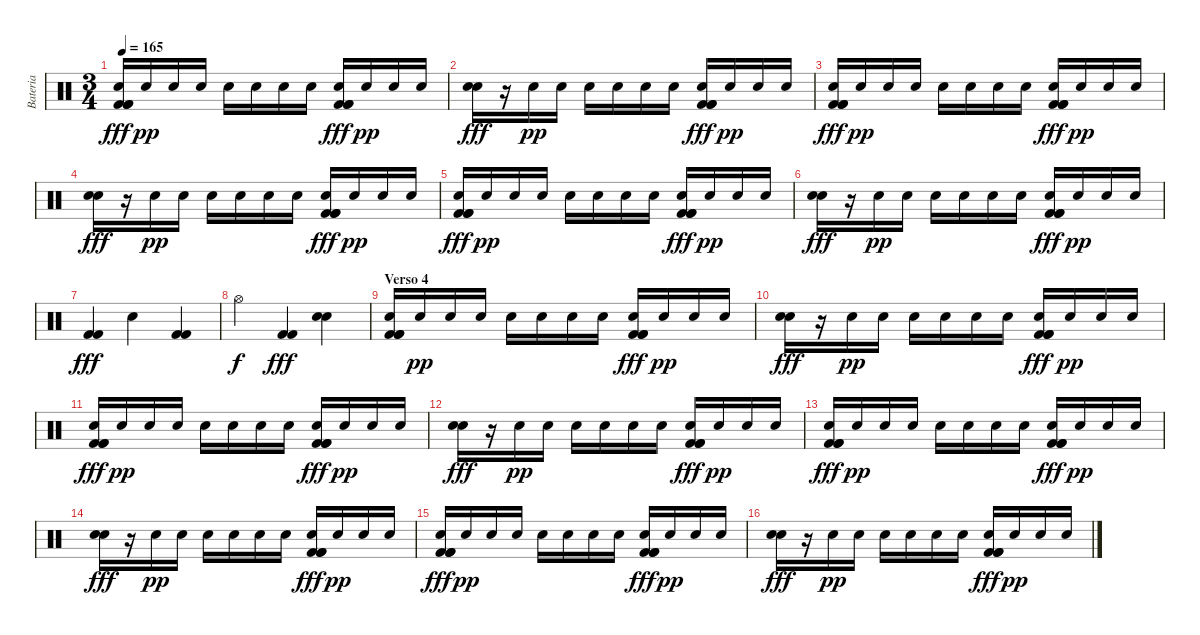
\track ("Bateria" "Bateria") {instrument percussion}
\staff {score}
\articulation defaults
\ts (3 4)
\tempo 165
\clef neutral
\ks c
("Electric Snare (hit)" "Kick (hit) 2" "Kick (hit) 2" "Kick (hit) 2").16{dy fff} "Electric Snare (hit)".16{dy pp} "Electric Snare (hit)".16 "Electric Snare (hit)".16 "Electric Snare (hit)".16 "Electric Snare (hit)".16 "Electric Snare (hit)".16 "Electric Snare (hit)".16 ("Electric Snare (hit)" "Kick (hit) 2" "Kick (hit) 2" "Kick (hit) 2").16{dy fff} "Electric Snare (hit)".16{dy pp} "Electric Snare (hit)".16 "Electric Snare (hit)".16 |
("Electric Snare (hit)" "Electric Snare (hit)").16{dy fff} r.16 "Electric Snare (hit)".16{dy pp} "Electric Snare (hit)".16 "Electric Snare (hit)".16 "Electric Snare (hit)".16 "Electric Snare (hit)".16 "Electric Snare (hit)".16 ("Electric Snare (hit)" "Kick (hit) 2" "Kick (hit) 2" "Kick (hit) 2").16{dy fff} "Electric Snare (hit)".16{dy pp} "Electric Snare (hit)".16 "Electric Snare (hit)".16 |
("Electric Snare (hit)" "Kick (hit) 2" "Kick (hit) 2" "Kick (hit) 2").16{dy fff} "Electric Snare (hit)".16{dy pp} "Electric Snare (hit)".16 "Electric Snare (hit)".16 "Electric Snare (hit)".16 "Electric Snare (hit)".16 "Electric Snare (hit)".16 "Electric Snare (hit)".16 ("Electric Snare (hit)" "Kick (hit) 2" "Kick (hit) 2" "Kick (hit) 2").16{dy fff} "Electric Snare (hit)".16{dy pp} "Electric Snare (hit)".16 "Electric Snare (hit)".16 |
("Electric Snare (hit)" "Electric Snare (hit)").16{dy fff} r.16 "Electric Snare (hit)".16{dy pp} "Electric Snare (hit)".16 "Electric Snare (hit)".16 "Electric Snare (hit)".16 "Electric Snare (hit)".16 "Electric Snare (hit)".16 ("Electric Snare (hit)" "Kick (hit) 2" "Kick (hit) 2" "Kick (hit) 2").16{dy fff} "Electric Snare (hit)".16{dy pp} "Electric Snare (hit)".16 "Electric Snare (hit)".16 |
("Electric Snare (hit)" "Kick (hit) 2" "Kick (hit) 2" "Kick (hit) 2").16{dy fff} "Electric Snare (hit)".16{dy pp} "Electric Snare (hit)".16 "Electric Snare (hit)".16 "Electric Snare (hit)".16 "Electric Snare (hit)".16 "Electric Snare (hit)".16 "Electric Snare (hit)".16 ("Electric Snare (hit)" "Kick (hit) 2" "Kick (hit) 2" "Kick (hit) 2").16{dy fff} "Electric Snare (hit)".16{dy pp} "Electric Snare (hit)".16 "Electric Snare (hit)".16 |
("Electric Snare (hit)" "Electric Snare (hit)").16{dy fff} r.16 "Electric Snare (hit)".16{dy pp} "Electric Snare (hit)".16 "Electric Snare (hit)".16 "Electric Snare (hit)".16 "Electric Snare (hit)".16 "Electric Snare (hit)".16 ("Electric Snare (hit)" "Kick (hit) 2" "Kick (hit) 2" "Kick (hit) 2").16{dy fff} "Electric Snare (hit)".16{dy pp} "Electric Snare (hit)".16 "Electric Snare (hit)".16 |
("Kick (hit) 2" "Kick (hit) 2").4{dy fff} "Electric Snare (hit)".4 ("Kick (hit) 2" "Kick (hit) 2").4 |
"Hi-Hat (open)".4{dy f} ("Kick (hit) 2" "Kick (hit) 2").4{dy fff} ("Electric Snare (hit)" "Electric Snare (hit)").4 |
\section ("" "Verso 4")
("Electric Snare (hit)" "Kick (hit) 2" "Kick (hit) 2" "Kick (hit) 2").16 "Electric Snare (hit)".16{dy pp} "Electric Snare (hit)".16 "Electric Snare (hit)".16 "Electric Snare (hit)".16 "Electric Snare (hit)".16 "Electric Snare (hit)".16 "Electric Snare (hit)".16 ("Electric Snare (hit)" "Kick (hit) 2" "Kick (hit) 2" "Kick (hit) 2").16{dy fff} "Electric Snare (hit)".16{dy pp} "Electric Snare (hit)".16 "Electric Snare (hit)".16 |
("Electric Snare (hit)" "Electric Snare (hit)").16{dy fff} r.16 "Electric Snare (hit)".16{dy pp} "Electric Snare (hit)".16 "Electric Snare (hit)".16 "Electric Snare (hit)".16 "Electric Snare (hit)".16 "Electric Snare (hit)".16 ("Electric Snare (hit)" "Kick (hit) 2" "Kick (hit) 2" "Kick (hit) 2").16{dy fff} "Electric Snare (hit)".16{dy pp} "Electric Snare (hit)".16 "Electric Snare (hit)".16 |
("Electric Snare (hit)" "Kick (hit) 2" "Kick (hit) 2" "Kick (hit) 2").16{dy fff} "Electric Snare (hit)".16{dy pp} "Electric Snare (hit)".16 "Electric Snare (hit)".16 "Electric Snare (hit)".16 "Electric Snare (hit)".16 "Electric Snare (hit)".16 "Electric Snare (hit)".16 ("Electric Snare (hit)" "Kick (hit) 2" "Kick (hit) 2" "Kick (hit) 2").16{dy fff} "Electric Snare (hit)".16{dy pp} "Electric Snare (hit)".16 "Electric Snare (hit)".16 |
("Electric Snare (hit)" "Electric Snare (hit)").16{dy fff} r.16 "Electric Snare (hit)".16{dy pp} "Electric Snare (hit)".16 "Electric Snare (hit)".16 "Electric Snare (hit)".16 "Electric Snare (hit)".16 "Electric Snare (hit)".16 ("Electric Snare (hit)" "Kick (hit) 2" "Kick (hit) 2" "Kick (hit) 2").16{dy fff} "Electric Snare (hit)".16{dy pp} "Electric Snare (hit)".16 "Electric Snare (hit)".16 |
("Electric Snare (hit)" "Kick (hit) 2" "Kick (hit) 2" "Kick (hit) 2").16{dy fff} "Electric Snare (hit)".16{dy pp} "Electric Snare (hit)".16 "Electric Snare (hit)".16 "Electric Snare (hit)".16 "Electric Snare (hit)".16 "Electric Snare (hit)".16 "Electric Snare (hit)".16 ("Electric Snare (hit)" "Kick (hit) 2" "Kick (hit) 2" "Kick (hit) 2").16{dy fff} "Electric Snare (hit)".16{dy pp} "Electric Snare (hit)".16 "Electric Snare (hit)".16 |
("Electric Snare (hit)" "Electric Snare (hit)").16{dy fff} r.16 "Electric Snare (hit)".16{dy pp} "Electric Snare (hit)".16 "Electric Snare (hit)".16 "Electric Snare (hit)".16 "Electric Snare (hit)".16 "Electric Snare (hit)".16 ("Electric Snare (hit)" "Kick (hit) 2" "Kick (hit) 2" "Kick (hit) 2").16{dy fff} "Electric Snare (hit)".16{dy pp} "Electric Snare (hit)".16 "Electric Snare (hit)".16 |
("Electric Snare (hit)" "Kick (hit) 2" "Kick (hit) 2" "Kick (hit) 2").16{dy fff} "Electric Snare (hit)".16{dy pp} "Electric Snare (hit)".16 "Electric Snare (hit)".16 "Electric Snare (hit)".16 "Electric Snare (hit)".16 "Electric Snare (hit)".16 "Electric Snare (hit)".16 ("Electric Snare (hit)" "Kick (hit) 2" "Kick (hit) 2" "Kick (hit) 2").16{dy fff} "Electric Snare (hit)".16{dy pp} "Electric Snare (hit)".16 "Electric Snare (hit)".16 |
("Electric Snare (hit)" "Electric Snare (hit)").16{dy fff} r.16 "Electric Snare (hit)".16{dy pp} "Electric Snare (hit)".16 "Electric Snare (hit)".16 "Electric Snare (hit)".16 "Electric Snare (hit)".16 "Electric Snare (hit)".16 ("Electric Snare (hit)" "Kick (hit) 2" "Kick (hit) 2" "Kick (hit) 2").16{dy fff} "Electric Snare (hit)".16{dy pp} "Electric Snare (hit)".16 "Electric Snare (hit)".16
